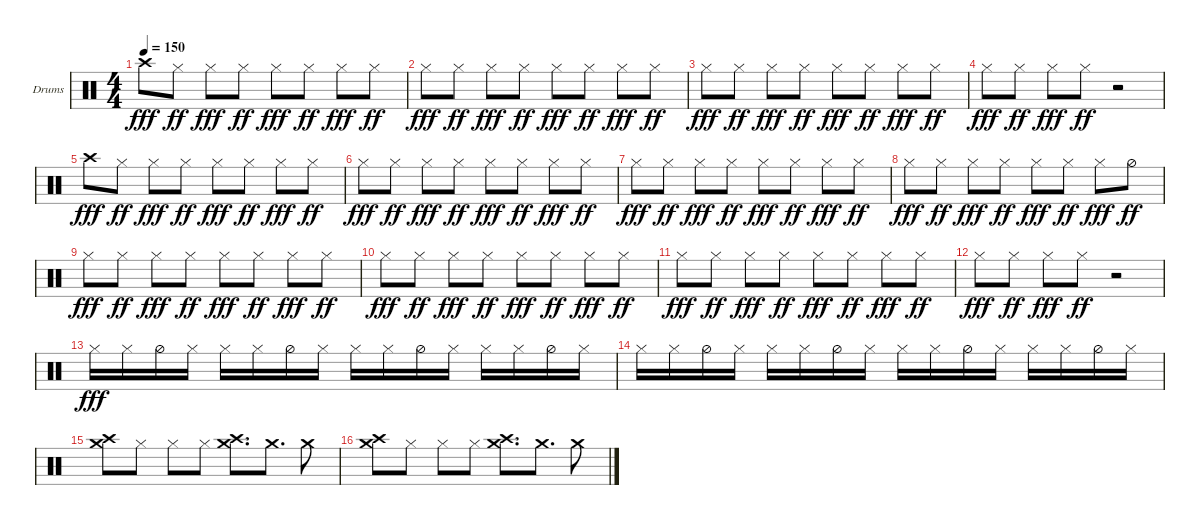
\defaultSystemsLayout 4
\bracketExtendMode groupsimilarinstruments
\firstSystemTrackNameOrientation horizontal
\otherSystemsTrackNameOrientation horizontal
\track ("Helders" "Drums") {instrument percussion}
\staff {score}
\articulation defaults
\ts (4 4)
\tempo 150
\clef neutral
\ks c "Crash high (hit)".8{dy fff} "Hi-Hat (closed)".8{dy ff} "Hi-Hat (closed)".8{dy fff} "Hi-Hat (closed)".8{dy ff} "Hi-Hat (closed)".8{dy fff} "Hi-Hat (closed)".8{dy ff} "Hi-Hat (closed)".8{dy fff} "Hi-Hat (closed)".8{dy ff}
|
"Hi-Hat (closed)".8{dy fff} "Hi-Hat (closed)".8{dy ff} "Hi-Hat (closed)".8{dy fff} "Hi-Hat (closed)".8{dy ff} "Hi-Hat (closed)".8{dy fff} "Hi-Hat (closed)".8{dy ff} "Hi-Hat (closed)".8{dy fff} "Hi-Hat (closed)".8{dy ff} |
"Hi-Hat (closed)".8{dy fff} "Hi-Hat (closed)".8{dy ff} "Hi-Hat (closed)".8{dy fff} "Hi-Hat (closed)".8{dy ff} "Hi-Hat (closed)".8{dy fff} "Hi-Hat (closed)".8{dy ff} "Hi-Hat (closed)".8{dy fff} "Hi-Hat (closed)".8{dy ff} |
"Hi-Hat (closed)".8{dy fff} "Hi-Hat (closed)".8{dy ff} "Hi-Hat (closed)".8{dy fff} "Hi-Hat (closed)".8{dy ff} r.2 |
"Crash high (hit)".8{dy fff} "Hi-Hat (closed)".8{dy ff} "Hi-Hat (closed)".8{dy fff} "Hi-Hat (closed)".8{dy ff} "Hi-Hat (closed)".8{dy fff} "Hi-Hat (closed)".8{dy ff} "Hi-Hat (closed)".8{dy fff} "Hi-Hat (closed)".8{dy ff} |
"Hi-Hat (closed)".8{dy fff} "Hi-Hat (closed)".8{dy ff} "Hi-Hat (closed)".8{dy fff} "Hi-Hat (closed)".8{dy ff} "Hi-Hat (closed)".8{dy fff} "Hi-Hat (closed)".8{dy ff} "Hi-Hat (closed)".8{dy fff} "Hi-Hat (closed)".8{dy ff} |
"Hi-Hat (closed)".8{dy fff} "Hi-Hat (closed)".8{dy ff} "Hi-Hat (closed)".8{dy fff} "Hi-Hat (closed)".8{dy ff} "Hi-Hat (closed)".8{dy fff} "Hi-Hat (closed)".8{dy ff} "Hi-Hat (closed)".8{dy fff} "Hi-Hat (closed)".8{dy ff} |
"Hi-Hat (closed)".8{dy fff} "Hi-Hat (closed)".8{dy ff} "Hi-Hat (closed)".8{dy fff} "Hi-Hat (closed)".8{dy ff} "Hi-Hat (closed)".8{dy fff} "Hi-Hat (closed)".8{dy ff} "Hi-Hat (closed)".8{dy fff} "Hi-Hat (half)".8{dy ff} |
"Hi-Hat (closed)".8{dy fff} "Hi-Hat (closed)".8{dy ff} "Hi-Hat (closed)".8{dy fff} "Hi-Hat (closed)".8{dy ff} "Hi-Hat (closed)".8{dy fff} "Hi-Hat (closed)".8{dy ff} "Hi-Hat (closed)".8{dy fff} "Hi-Hat (closed)".8{dy ff} |
"Hi-Hat (closed)".8{dy fff} "Hi-Hat (closed)".8{dy ff} "Hi-Hat (closed)".8{dy fff} "Hi-Hat (closed)".8{dy ff} "Hi-Hat (closed)".8{dy fff} "Hi-Hat (closed)".8{dy ff} "Hi-Hat (closed)".8{dy fff} "Hi-Hat (closed)".8{dy ff} |
"Hi-Hat (closed)".8{dy fff} "Hi-Hat (closed)".8{dy ff} "Hi-Hat (closed)".8{dy fff} "Hi-Hat (closed)".8{dy ff} "Hi-Hat (closed)".8{dy fff} "Hi-Hat (closed)".8{dy ff} "Hi-Hat (closed)".8{dy fff} "Hi-Hat (closed)".8{dy ff} |
"Hi-Hat (closed)".8{dy fff} "Hi-Hat (closed)".8{dy ff} "Hi-Hat (closed)".8{dy fff} "Hi-Hat (closed)".8{dy ff} r.2 |
"Hi-Hat (closed)".16{dy fff} "Hi-Hat (closed)".16 "Hi-Hat (half)".16 "Hi-Hat (closed)".16 "Hi-Hat (closed)".16 "Hi-Hat (closed)".16 "Hi-Hat (half)".16 "Hi-Hat (closed)".16 "Hi-Hat (closed)".16 "Hi-Hat (closed)".16 "Hi-Hat (half)".16 "Hi-Hat (closed)".16 "Hi-Hat (closed)".16 "Hi-Hat (closed)".16 "Hi-Hat (half)".16 "Hi-Hat (closed)".16 |
"Hi-Hat (closed)".16 "Hi-Hat (closed)".16 "Hi-Hat (half)".16 "Hi-Hat (closed)".16 "Hi-Hat (closed)".16 "Hi-Hat (closed)".16 "Hi-Hat (half)".16 "Hi-Hat (closed)".16 "Hi-Hat (closed)".16 "Hi-Hat (closed)".16 "Hi-Hat (half)".16 "Hi-Hat (closed)".16 "Hi-Hat (closed)".16 "Hi-Hat (closed)".16 "Hi-Hat (half)".16 "Hi-Hat (closed)".16 |
("Crash high (hit)" "Crash medium (hit)").8 "Hi-Hat (closed)".8 "Hi-Hat (closed)".8 "Hi-Hat (closed)".8 ("Crash high (hit)" "Crash medium (hit)").8{d} "Crash medium (hit)".8{d} "Crash medium (hit)".8 |
("Crash high (hit)" "Crash medium (hit)").8 "Hi-Hat (closed)".8 "Hi-Hat (closed)".8 "Hi-Hat (closed)".8 ("Crash high (hit)" "Crash medium (hit)").8{d} "Crash medium (hit)".8{d} "Crash medium (hit)".8
